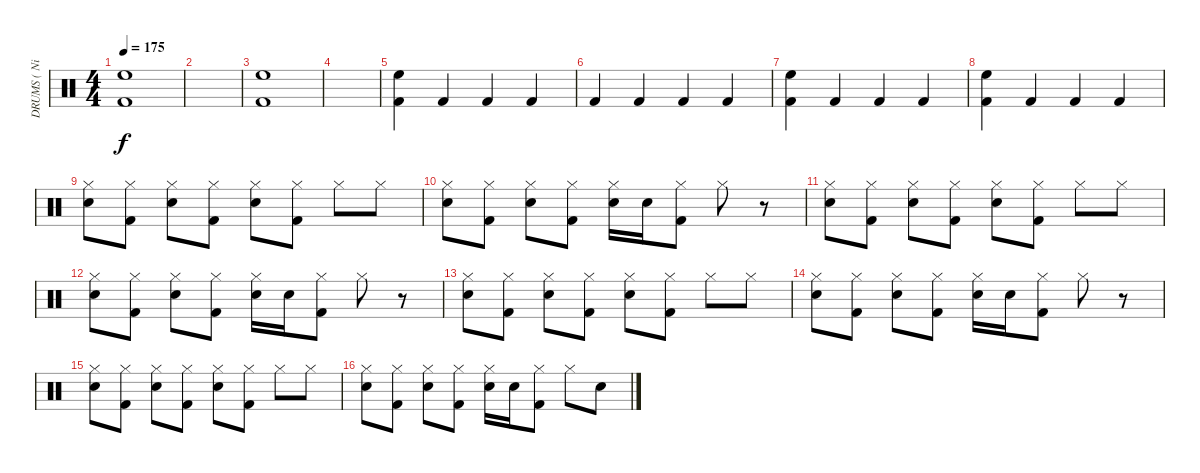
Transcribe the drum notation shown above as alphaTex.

\track ("DRUMS ( Nick Oshiro )" "DRUMS ( Ni") {instrument percussion}
\staff {score}
\articulation defaults
\ts (4 4)
\tempo 175
\clef neutral
\ks c
("Kick (hit) 2" "High Floor Tom (hit)").1{dy f} |
|
("Kick (hit) 2" "High Floor Tom (hit)").1 |
|
("Kick (hit) 2" "High Floor Tom (hit)").4 "Kick (hit) 2".4 "Kick (hit) 2".4 "Kick (hit) 2".4 |
"Kick (hit) 2".4 "Kick (hit) 2".4 "Kick (hit) 2".4 "Kick (hit) 2".4 |
("Kick (hit) 2" "High Floor Tom (hit)").4 "Kick (hit) 2".4 "Kick (hit) 2".4 "Kick (hit) 2".4 |
("Kick (hit) 2" "High Floor Tom (hit)").4 "Kick (hit) 2".4 "Kick (hit) 2".4 "Kick (hit) 2".4 |
("Electric Snare (hit)" "Hi-Hat (closed)").8 ("Kick (hit) 2" "Hi-Hat (closed)").8 ("Electric Snare (hit)" "Hi-Hat (closed)").8 ("Kick (hit) 2" "Hi-Hat (closed)").8 ("Electric Snare (hit)" "Hi-Hat (closed)").8 ("Kick (hit) 2" "Hi-Hat (closed)").8 "Hi-Hat (closed)".8 "Hi-Hat (closed)".8 |
("Electric Snare (hit)" "Hi-Hat (closed)").8 ("Kick (hit) 2" "Hi-Hat (closed)").8 ("Electric Snare (hit)" "Hi-Hat (closed)").8 ("Kick (hit) 2" "Hi-Hat (closed)").8 ("Electric Snare (hit)" "Hi-Hat (closed)").16 "Electric Snare (hit)".16 ("Kick (hit) 2" "Hi-Hat (closed)").8 "Hi-Hat (closed)".8 r.8 |
("Electric Snare (hit)" "Hi-Hat (closed)").8 ("Kick (hit) 2" "Hi-Hat (closed)").8 ("Electric Snare (hit)" "Hi-Hat (closed)").8 ("Kick (hit) 2" "Hi-Hat (closed)").8 ("Electric Snare (hit)" "Hi-Hat (closed)").8 ("Kick (hit) 2" "Hi-Hat (closed)").8 "Hi-Hat (closed)".8 "Hi-Hat (closed)".8 |
("Electric Snare (hit)" "Hi-Hat (closed)").8 ("Kick (hit) 2" "Hi-Hat (closed)").8 ("Electric Snare (hit)" "Hi-Hat (closed)").8 ("Kick (hit) 2" "Hi-Hat (closed)").8 ("Electric Snare (hit)" "Hi-Hat (closed)").16 "Electric Snare (hit)".16 ("Kick (hit) 2" "Hi-Hat (closed)").8 "Hi-Hat (closed)".8 r.8 |
("Electric Snare (hit)" "Hi-Hat (closed)").8 ("Kick (hit) 2" "Hi-Hat (closed)").8 ("Electric Snare (hit)" "Hi-Hat (closed)").8 ("Kick (hit) 2" "Hi-Hat (closed)").8 ("Electric Snare (hit)" "Hi-Hat (closed)").8 ("Kick (hit) 2" "Hi-Hat (closed)").8 "Hi-Hat (closed)".8 "Hi-Hat (closed)".8 |
("Electric Snare (hit)" "Hi-Hat (closed)").8 ("Kick (hit) 2" "Hi-Hat (closed)").8 ("Electric Snare (hit)" "Hi-Hat (closed)").8 ("Kick (hit) 2" "Hi-Hat (closed)").8 ("Electric Snare (hit)" "Hi-Hat (closed)").16 "Electric Snare (hit)".16 ("Kick (hit) 2" "Hi-Hat (closed)").8 "Hi-Hat (closed)".8 r.8 |
("Electric Snare (hit)" "Hi-Hat (closed)").8 ("Kick (hit) 2" "Hi-Hat (closed)").8 ("Electric Snare (hit)" "Hi-Hat (closed)").8 ("Kick (hit) 2" "Hi-Hat (closed)").8 ("Electric Snare (hit)" "Hi-Hat (closed)").8 ("Kick (hit) 2" "Hi-Hat (closed)").8 "Hi-Hat (closed)".8 "Hi-Hat (closed)".8 |
("Electric Snare (hit)" "Hi-Hat (closed)").8 ("Kick (hit) 2" "Hi-Hat (closed)").8 ("Electric Snare (hit)" "Hi-Hat (closed)").8 ("Kick (hit) 2" "Hi-Hat (closed)").8 ("Electric Snare (hit)" "Hi-Hat (closed)").16 "Electric Snare (hit)".16 ("Kick (hit) 2" "Hi-Hat (closed)").8 "Hi-Hat (closed)".8 "Electric Snare (hit)".8
